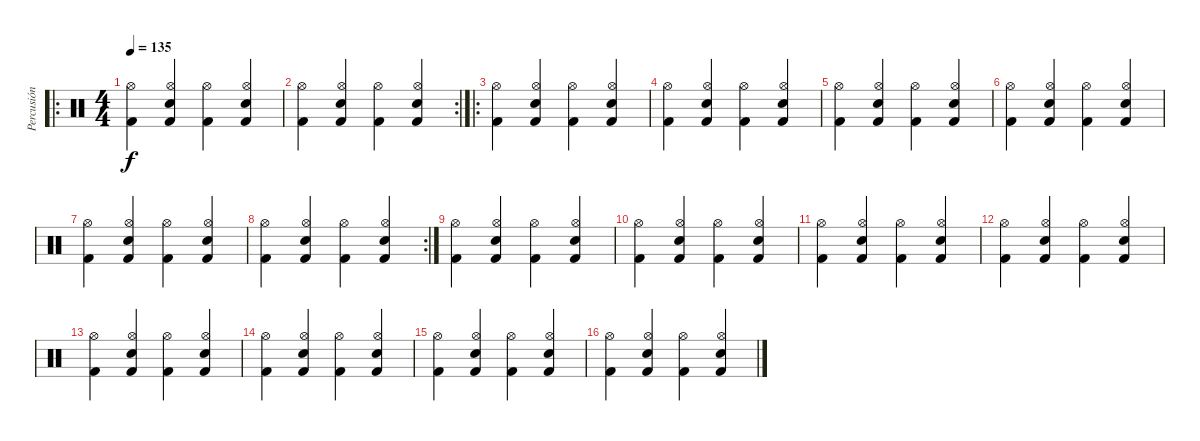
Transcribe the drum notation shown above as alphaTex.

\track ("Percusión" "Percusión") {instrument percussion}
\staff {score}
\articulation defaults
\ro
\ts (4 4)
\tempo 135
\clef neutral
\ks c
("Kick (hit) 2" "Hi-Hat (open)").4{dy f} ("Kick (hit) 2" "Electric Snare (hit)" "Hi-Hat (open)").4 ("Kick (hit) 2" "Hi-Hat (open)").4 ("Kick (hit) 2" "Electric Snare (hit)" "Hi-Hat (open)").4 |
\rc 2
("Kick (hit) 2" "Hi-Hat (open)").4 ("Kick (hit) 2" "Electric Snare (hit)" "Hi-Hat (open)").4 ("Kick (hit) 2" "Hi-Hat (open)").4 ("Kick (hit) 2" "Electric Snare (hit)" "Hi-Hat (open)").4 |
\ro
("Kick (hit) 2" "Hi-Hat (open)").4 ("Kick (hit) 2" "Electric Snare (hit)" "Hi-Hat (open)").4 ("Kick (hit) 2" "Hi-Hat (open)").4 ("Kick (hit) 2" "Electric Snare (hit)" "Hi-Hat (open)").4 |
("Kick (hit) 2" "Hi-Hat (open)").4 ("Kick (hit) 2" "Electric Snare (hit)" "Hi-Hat (open)").4 ("Kick (hit) 2" "Hi-Hat (open)").4 ("Kick (hit) 2" "Electric Snare (hit)" "Hi-Hat (open)").4 |
("Kick (hit) 2" "Hi-Hat (open)").4 ("Kick (hit) 2" "Electric Snare (hit)" "Hi-Hat (open)").4 ("Kick (hit) 2" "Hi-Hat (open)").4 ("Kick (hit) 2" "Electric Snare (hit)" "Hi-Hat (open)").4 |
("Kick (hit) 2" "Hi-Hat (open)").4 ("Kick (hit) 2" "Electric Snare (hit)" "Hi-Hat (open)").4 ("Kick (hit) 2" "Hi-Hat (open)").4 ("Kick (hit) 2" "Electric Snare (hit)" "Hi-Hat (open)").4 |
("Kick (hit) 2" "Hi-Hat (open)").4 ("Kick (hit) 2" "Electric Snare (hit)" "Hi-Hat (open)").4 ("Kick (hit) 2" "Hi-Hat (open)").4 ("Kick (hit) 2" "Electric Snare (hit)" "Hi-Hat (open)").4 |
\rc 2
("Kick (hit) 2" "Hi-Hat (open)").4 ("Kick (hit) 2" "Electric Snare (hit)" "Hi-Hat (open)").4 ("Kick (hit) 2" "Hi-Hat (open)").4 ("Kick (hit) 2" "Electric Snare (hit)" "Hi-Hat (open)").4 |
("Kick (hit) 2" "Hi-Hat (open)").4 ("Kick (hit) 2" "Electric Snare (hit)" "Hi-Hat (open)").4 ("Kick (hit) 2" "Hi-Hat (open)").4 ("Kick (hit) 2" "Electric Snare (hit)" "Hi-Hat (open)").4 |
("Kick (hit) 2" "Hi-Hat (open)").4 ("Kick (hit) 2" "Electric Snare (hit)" "Hi-Hat (open)").4 ("Kick (hit) 2" "Hi-Hat (open)").4 ("Kick (hit) 2" "Electric Snare (hit)" "Hi-Hat (open)").4 |
("Kick (hit) 2" "Hi-Hat (open)").4 ("Kick (hit) 2" "Electric Snare (hit)" "Hi-Hat (open)").4 ("Kick (hit) 2" "Hi-Hat (open)").4 ("Kick (hit) 2" "Electric Snare (hit)" "Hi-Hat (open)").4 |
("Kick (hit) 2" "Hi-Hat (open)").4 ("Kick (hit) 2" "Electric Snare (hit)" "Hi-Hat (open)").4 ("Kick (hit) 2" "Hi-Hat (open)").4 ("Kick (hit) 2" "Electric Snare (hit)" "Hi-Hat (open)").4 |
("Kick (hit) 2" "Hi-Hat (open)").4 ("Kick (hit) 2" "Electric Snare (hit)" "Hi-Hat (open)").4 ("Kick (hit) 2" "Hi-Hat (open)").4 ("Kick (hit) 2" "Electric Snare (hit)" "Hi-Hat (open)").4 |
("Kick (hit) 2" "Hi-Hat (open)").4 ("Kick (hit) 2" "Electric Snare (hit)" "Hi-Hat (open)").4 ("Kick (hit) 2" "Hi-Hat (open)").4 ("Kick (hit) 2" "Electric Snare (hit)" "Hi-Hat (open)").4 |
("Kick (hit) 2" "Hi-Hat (open)").4 ("Kick (hit) 2" "Electric Snare (hit)" "Hi-Hat (open)").4 ("Kick (hit) 2" "Hi-Hat (open)").4 ("Kick (hit) 2" "Electric Snare (hit)" "Hi-Hat (open)").4 |
("Kick (hit) 2" "Hi-Hat (open)").4 ("Kick (hit) 2" "Electric Snare (hit)" "Hi-Hat (open)").4 ("Kick (hit) 2" "Hi-Hat (open)").4 ("Kick (hit) 2" "Electric Snare (hit)" "Hi-Hat (open)").4
